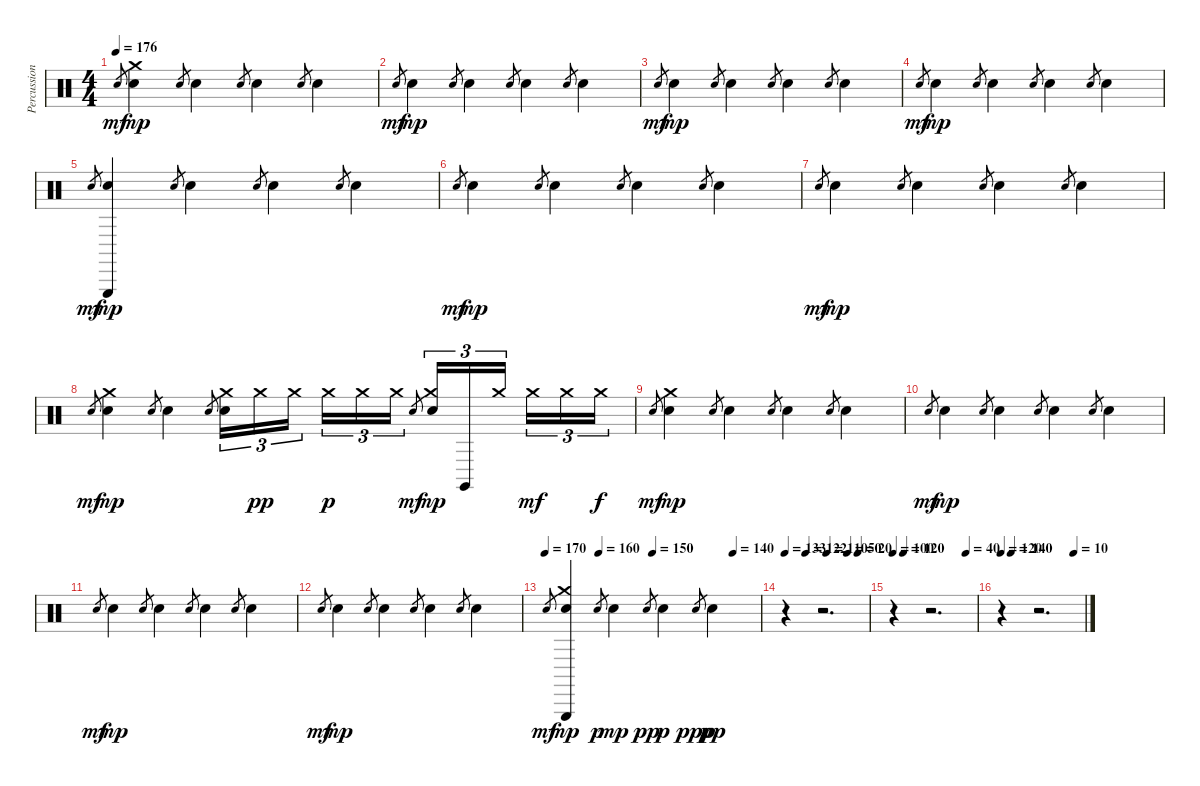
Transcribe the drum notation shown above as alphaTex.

\track ("Percussion" "Percussion") {instrument percussion}
\staff {score}
\articulation defaults
\ts (4 4)
\tempo 176
\clef neutral
\ks c "Snare (hit)".8{gr dy mf}
("Hand Clap (hit)" "Crash medium (hit)").4{dy mp} "Snare (hit)".8{gr} "Hand Clap (hit)".4 "Snare (hit)".8{gr} "Hand Clap (hit)".4 "Snare (hit)".8{gr} "Hand Clap (hit)".4 |
"Snare (hit)".8{gr dy mf} "Hand Clap (hit)".4{dy mp} "Snare (hit)".8{gr} "Hand Clap (hit)".4 "Snare (hit)".8{gr} "Hand Clap (hit)".4 "Snare (hit)".8{gr} "Hand Clap (hit)".4 |
"Snare (hit)".8{gr dy mf} "Hand Clap (hit)".4{dy mp} "Snare (hit)".8{gr} "Hand Clap (hit)".4 "Snare (hit)".8{gr} "Hand Clap (hit)".4 "Snare (hit)".8{gr} "Hand Clap (hit)".4 |
"Snare (hit)".8{gr dy mf} "Hand Clap (hit)".4{dy mp} "Snare (hit)".8{gr} "Hand Clap (hit)".4 "Snare (hit)".8{gr} "Hand Clap (hit)".4 "Snare (hit)".8{gr} "Hand Clap (hit)".4 |
"Snare (hit)".8{gr dy mf} ("Hand Clap (hit)" "Triangle (hit)").4{dy mp} "Snare (hit)".8{gr} "Hand Clap (hit)".4 "Snare (hit)".8{gr} "Hand Clap (hit)".4 "Snare (hit)".8{gr} "Hand Clap (hit)".4 |
"Snare (hit)".8{gr dy mf} "Hand Clap (hit)".4{dy mp} "Snare (hit)".8{gr} "Hand Clap (hit)".4 "Snare (hit)".8{gr} "Hand Clap (hit)".4 "Snare (hit)".8{gr} "Hand Clap (hit)".4 |
"Snare (hit)".8{gr dy mf} "Hand Clap (hit)".4{dy mp} "Snare (hit)".8{gr} "Hand Clap (hit)".4 "Snare (hit)".8{gr} "Hand Clap (hit)".4 "Snare (hit)".8{gr} "Hand Clap (hit)".4 |
"Snare (hit)".8{gr dy mf} ("Hand Clap (hit)" "Crash medium (hit)").4{dy mp} "Snare (hit)".8{gr} "Hand Clap (hit)".4 "Snare (hit)".8{gr} ("Hand Clap (hit)" "Crash medium (hit)").16{tu (3 2)} "Crash medium (hit)".16{tu (3 2) dy pp} "Crash medium (hit)".16{tu (3 2)} "Crash medium (hit)".16{tu (3 2) dy p} "Crash medium (hit)".16{tu (3 2)} "Crash medium (hit)".16{tu (3 2)} "Snare (hit)".8{gr dy mf} ("Hand Clap (hit)" "Crash medium (hit)").16{tu (3 2) dy mp} "Claves (hit)".16{tu (3 2)} "Crash medium (hit)".16{tu (3 2)} "Crash medium (hit)".16{tu (3 2) dy mf} "Crash medium (hit)".16{tu (3 2)} "Crash medium (hit)".16{tu (3 2) dy f} |
"Snare (hit)".8{gr dy mf} ("Hand Clap (hit)" "Crash medium (hit)").4{dy mp} "Snare (hit)".8{gr} "Hand Clap (hit)".4 "Snare (hit)".8{gr} "Hand Clap (hit)".4 "Snare (hit)".8{gr} "Hand Clap (hit)".4 |
"Snare (hit)".8{gr dy mf} "Hand Clap (hit)".4{dy mp} "Snare (hit)".8{gr} "Hand Clap (hit)".4 "Snare (hit)".8{gr} "Hand Clap (hit)".4 "Snare (hit)".8{gr} "Hand Clap (hit)".4 |
"Snare (hit)".8{gr dy mf} "Hand Clap (hit)".4{dy mp} "Snare (hit)".8{gr} "Hand Clap (hit)".4 "Snare (hit)".8{gr} "Hand Clap (hit)".4 "Snare (hit)".8{gr} "Hand Clap (hit)".4 |
"Snare (hit)".8{gr dy mf} "Hand Clap (hit)".4{dy mp} "Snare (hit)".8{gr} "Hand Clap (hit)".4 "Snare (hit)".8{gr} "Hand Clap (hit)".4 "Snare (hit)".8{gr} "Hand Clap (hit)".4 |
\tempo 170
\tempo (160 0.25)
\tempo (150 0.5)
\tempo (140 0.875)
"Snare (hit)".8{gr dy mf} ("Hand Clap (hit)" "Triangle (hit)" "Crash medium (hit)").4{dy mp} "Snare (hit)".8{gr dy p} "Hand Clap (hit)".4{dy mp} "Snare (hit)".8{gr dy pp} "Hand Clap (hit)".4{dy p} "Snare (hit)".8{gr dy ppp} "Hand Clap (hit)".4{dy pp} |
\tempo 133
\tempo (122 0.25)
\tempo (110 0.5)
\tempo (50 0.75)
\tempo (20 0.875)
r.4 r.2{d} |
\tempo 100
\tempo (120 0.125)
\tempo (40 0.875)
r.4 r.2{d} |
\tempo 120
\tempo (140 0.125)
\tempo (10 0.875)
r.4 r.2{d}
